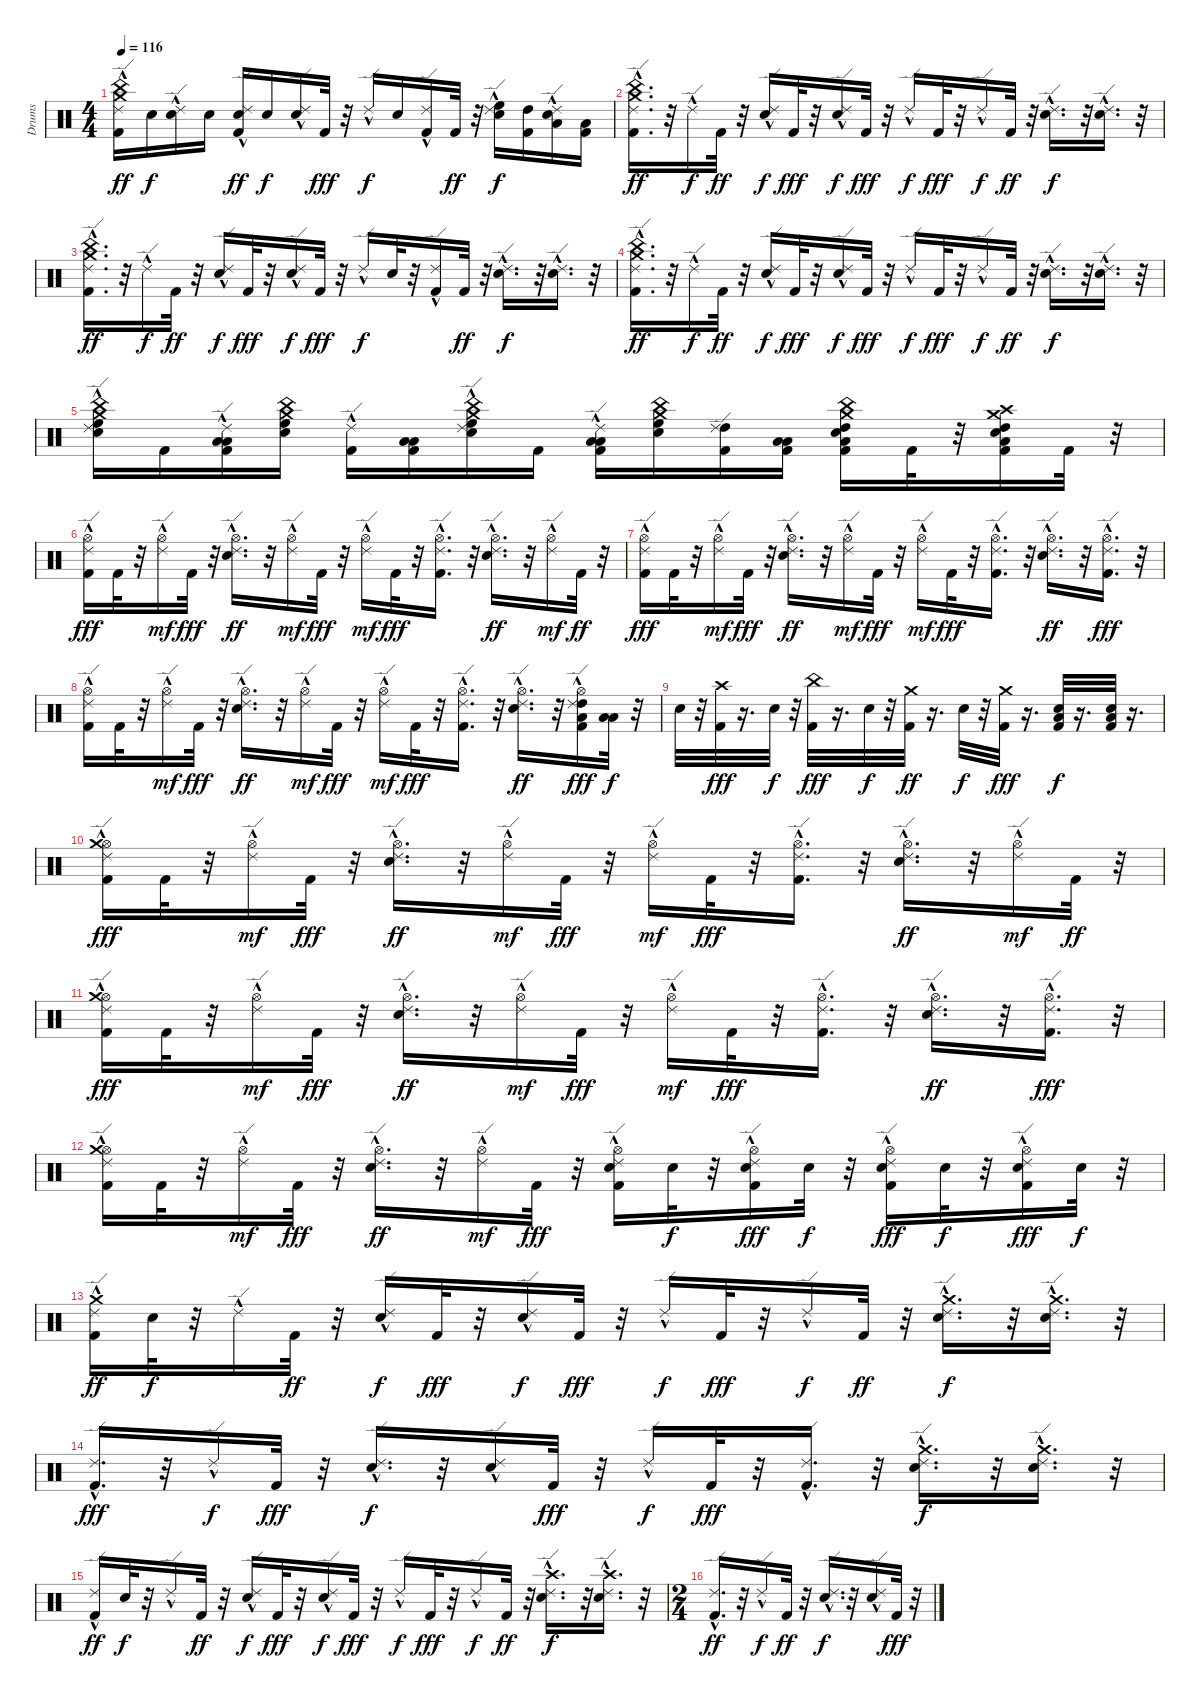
\track ("Drums" "Drums") {instrument percussion}
\staff {score}
\articulation defaults
\ts (4 4)
\tempo 116
\clef neutral
\ks c
("Crash medium (hit)" "China (hit)" "Kick (hit) 2"{hac} "Ride (edge) 2"{hac}).16{dy ff} "Electric Snare (hit)".16{dy f} ("Electric Snare (hit)" "Ride (edge) 2"{hac}).16 "Electric Snare (hit)".16 ("Kick (hit) 2" "Electric Snare (hit)" "Ride (edge) 2"{hac}).16{dy ff} "Electric Snare (hit)".16{dy f} ("Electric Snare (hit)" "Ride (edge) 2"{hac}).16 "Kick (hit) 2".32{dy fff} r.32 "Ride (edge) 2"{hac}.16{dy f} "Electric Snare (hit)".16 ("Kick (hit) 2" "Ride (edge) 2"{hac}).16 "Kick (hit) 2".32{dy ff} r.32 ("High Floor Tom (hit)" "Electric Snare (hit)" "Ride (edge) 2"{hac}).16{dy f} ("High Tom (hit)" "Kick (hit) 2").16 ("Low Tom (hit)" "Electric Snare (hit)" "Ride (edge) 2"{hac}).16 ("Low Floor Tom (hit)" "Kick (hit) 2").16 |
("China (hit)" "Crash medium (hit)" "Kick (hit) 2"{hac} "Ride (edge) 2"{hac}).16{d dy ff} r.32 "Ride (edge) 2"{hac}.16{dy f} "Kick (hit) 2".32{dy ff} r.32 ("Electric Snare (hit)" "Ride (edge) 2"{hac}).16{dy f} "Kick (hit) 2".32{dy fff} r.32 ("Electric Snare (hit)" "Ride (edge) 2"{hac}).16{dy f} "Kick (hit) 2".32{dy fff} r.32 "Ride (edge) 2"{hac}.16{dy f} "Kick (hit) 2".32{dy fff} r.32 "Ride (edge) 2"{hac}.16{dy f} "Kick (hit) 2".32{dy ff} r.32 ("Electric Snare (hit)" "Ride (edge) 2"{hac}).16{d dy f} r.32 ("Electric Snare (hit)" "Ride (edge) 2"{hac}).16{d} r.32 |
("Crash medium (hit)" "China (hit)" "Kick (hit) 2"{hac} "Ride (edge) 2"{hac}).16{d dy ff} r.32 "Ride (edge) 2"{hac}.16{dy f} "Kick (hit) 2".32{dy ff} r.32 ("Electric Snare (hit)" "Ride (edge) 2"{hac}).16{dy f} "Kick (hit) 2".32{dy fff} r.32 ("Electric Snare (hit)" "Ride (edge) 2"{hac}).16{dy f} "Kick (hit) 2".32{dy fff} r.32 "Ride (edge) 2"{hac}.16{dy f} "Electric Snare (hit)".32 r.32 ("Kick (hit) 2" "Ride (edge) 2"{hac}).16 "Kick (hit) 2".32{dy ff} r.32 ("Electric Snare (hit)" "Ride (edge) 2"{hac}).16{d dy f} r.32 ("Electric Snare (hit)" "Ride (edge) 2"{hac}).16{d} r.32 |
("China (hit)" "Crash medium (hit)" "Kick (hit) 2"{hac} "Ride (edge) 2"{hac}).16{d dy ff} r.32 "Ride (edge) 2"{hac}.16{dy f} "Kick (hit) 2".32{dy ff} r.32 ("Electric Snare (hit)" "Ride (edge) 2"{hac}).16{dy f} "Kick (hit) 2".32{dy fff} r.32 ("Electric Snare (hit)" "Ride (edge) 2"{hac}).16{dy f} "Kick (hit) 2".32{dy fff} r.32 "Ride (edge) 2"{hac}.16{dy f} "Kick (hit) 2".32{dy fff} r.32 "Ride (edge) 2"{hac}.16{dy f} "Kick (hit) 2".32{dy ff} r.32 ("Electric Snare (hit)" "Ride (edge) 2"{hac}).16{d dy f} r.32 ("Electric Snare (hit)" "Ride (edge) 2"{hac}).16{d} r.32 |
("High Floor Tom (hit)" "Electric Snare (hit)" "China (hit)" "Crash medium (hit)" "Ride (edge) 2"{hac}).16 "Kick (hit) 2".16 ("Low Floor Tom (hit)" "Low Tom (hit)" "Kick (hit) 2" "Ride (edge) 2"{hac}).16 ("High Floor Tom (hit)" "Crash medium (hit)" "China (hit)" "Electric Snare (hit)").16 ("Kick (hit) 2" "Ride (edge) 2"{hac}).16 ("Low Floor Tom (hit)" "Low Tom (hit)" "Kick (hit) 2").16 ("High Floor Tom (hit)" "Crash medium (hit)" "China (hit)" "Electric Snare (hit)" "Ride (edge) 2"{hac}).16 "Kick (hit) 2".16 ("Low Floor Tom (hit)" "Low Tom (hit)" "Kick (hit) 2" "Ride (edge) 2"{hac}).16 ("High Floor Tom (hit)" "Crash medium (hit)" "China (hit)" "Electric Snare (hit)").16 ("High Tom (hit)" "Kick (hit) 2" "Ride (edge) 2").16 ("Low Floor Tom (hit)" "Low Tom (hit)" "Kick (hit) 2").16 ("Low Floor Tom (hit)" "High Tom (hit)" "Crash medium (hit)" "China (hit)" "Kick (hit) 2" "Electric Snare (hit)").16 "Kick (hit) 2".32 r.32 ("High Tom (hit)" "Low Floor Tom (hit)" "Crash high (hit)" "Crash medium (hit)" "Kick (hit) 2" "Electric Snare (hit)").16 "Kick (hit) 2".32 r.32 |
("Hi-Hat (open)" "Ride (edge) 2"{hac} "Kick (hit) 2").16{dy fff} "Kick (hit) 2".32 r.32 ("Hi-Hat (open)" "Ride (edge) 2"{hac}).16{dy mf} "Kick (hit) 2".32{dy fff} r.32 ("Hi-Hat (open)" "Ride (edge) 2"{hac} "Electric Snare (hit)").16{d dy ff} r.32 ("Hi-Hat (open)" "Ride (edge) 2"{hac}).16{dy mf} "Kick (hit) 2".32{dy fff} r.32 ("Hi-Hat (open)" "Ride (edge) 2"{hac}).16{dy mf} "Kick (hit) 2".32{dy fff} r.32 ("Hi-Hat (open)" "Ride (edge) 2"{hac} "Kick (hit) 2").16{d} r.32 ("Hi-Hat (open)" "Ride (edge) 2"{hac} "Electric Snare (hit)").16{d dy ff} r.32 ("Hi-Hat (open)" "Ride (edge) 2"{hac}).16{dy mf} "Kick (hit) 2".32{dy ff} r.32 |
("Hi-Hat (open)" "Ride (edge) 2"{hac} "Kick (hit) 2").16{dy fff} "Kick (hit) 2".32 r.32 ("Hi-Hat (open)" "Ride (edge) 2"{hac}).16{dy mf} "Kick (hit) 2".32{dy fff} r.32 ("Hi-Hat (open)" "Ride (edge) 2"{hac} "Electric Snare (hit)").16{d dy ff} r.32 ("Hi-Hat (open)" "Ride (edge) 2"{hac}).16{dy mf} "Kick (hit) 2".32{dy fff} r.32 ("Hi-Hat (open)" "Ride (edge) 2"{hac}).16{dy mf} "Kick (hit) 2".32{dy fff} r.32 ("Hi-Hat (open)" "Ride (edge) 2"{hac} "Kick (hit) 2").16{d} r.32 ("Hi-Hat (open)" "Ride (edge) 2"{hac} "Electric Snare (hit)").16{d dy ff} r.32 ("Hi-Hat (open)" "Kick (hit) 2" "Ride (edge) 2"{hac}).16{d dy fff} r.32 |
("Hi-Hat (open)" "Ride (edge) 2"{hac} "Kick (hit) 2").16 "Kick (hit) 2".32 r.32 ("Hi-Hat (open)" "Ride (edge) 2"{hac}).16{dy mf} "Kick (hit) 2".32{dy fff} r.32 ("Hi-Hat (open)" "Ride (edge) 2"{hac} "Electric Snare (hit)").16{d dy ff} r.32 ("Hi-Hat (open)" "Ride (edge) 2"{hac}).16{dy mf} "Kick (hit) 2".32{dy fff} r.32 ("Hi-Hat (open)" "Ride (edge) 2"{hac}).16{dy mf} "Kick (hit) 2".32{dy fff} r.32 ("Hi-Hat (open)" "Ride (edge) 2"{hac} "Kick (hit) 2").16{d} r.32 ("Hi-Hat (open)" "Ride (edge) 2"{hac} "Electric Snare (hit)").16{d dy ff} r.32 ("Hi-Hat (open)" "Low Tom (hit)" "High Tom (hit)" "Kick (hit) 2" "Ride (edge) 2"{hac}).16{dy fff} ("Low Floor Tom (hit)" "Low Tom (hit)").32{dy f} r.32 |
"Electric Snare (hit)".32 r.32 ("Crash high (hit)" "Kick (hit) 2").32{dy fff} r.16{d} "Electric Snare (hit)".32{dy f} r.32 ("China (hit)" "Kick (hit) 2").32{dy fff} r.16{d} "Electric Snare (hit)".32{dy f} r.32 ("Crash medium (hit)" "Kick (hit) 2").32{dy ff} r.16{d} "Electric Snare (hit)".32{dy f} r.32 ("Crash medium (hit)" "Kick (hit) 2").32{dy fff} r.16{d} ("Low Tom (hit)" "Kick (hit) 2" "Electric Snare (hit)").32{dy f} r.16{d} ("Low Tom (hit)" "Kick (hit) 2" "Electric Snare (hit)").32 r.16{d} |
("Hi-Hat (open)" "Ride (edge) 2"{hac} "Kick (hit) 2" "Crash medium (hit)").16{dy fff} "Kick (hit) 2".32 r.32 ("Hi-Hat (open)" "Ride (edge) 2"{hac}).16{dy mf} "Kick (hit) 2".32{dy fff} r.32 ("Hi-Hat (open)" "Ride (edge) 2"{hac} "Electric Snare (hit)").16{d dy ff} r.32 ("Hi-Hat (open)" "Ride (edge) 2"{hac}).16{dy mf} "Kick (hit) 2".32{dy fff} r.32 ("Hi-Hat (open)" "Ride (edge) 2"{hac}).16{dy mf} "Kick (hit) 2".32{dy fff} r.32 ("Hi-Hat (open)" "Ride (edge) 2"{hac} "Kick (hit) 2").16{d} r.32 ("Hi-Hat (open)" "Ride (edge) 2"{hac} "Electric Snare (hit)").16{d dy ff} r.32 ("Hi-Hat (open)" "Ride (edge) 2"{hac}).16{dy mf} "Kick (hit) 2".32{dy ff} r.32 |
("Hi-Hat (open)" "Crash medium (hit)" "Ride (edge) 2"{hac} "Kick (hit) 2").16{dy fff} "Kick (hit) 2".32 r.32 ("Hi-Hat (open)" "Ride (edge) 2"{hac}).16{dy mf} "Kick (hit) 2".32{dy fff} r.32 ("Hi-Hat (open)" "Ride (edge) 2"{hac} "Electric Snare (hit)").16{d dy ff} r.32 ("Hi-Hat (open)" "Ride (edge) 2"{hac}).16{dy mf} "Kick (hit) 2".32{dy fff} r.32 ("Hi-Hat (open)" "Ride (edge) 2"{hac}).16{dy mf} "Kick (hit) 2".32{dy fff} r.32 ("Hi-Hat (open)" "Ride (edge) 2"{hac} "Kick (hit) 2").16{d} r.32 ("Hi-Hat (open)" "Ride (edge) 2"{hac} "Electric Snare (hit)").16{d dy ff} r.32 ("Hi-Hat (open)" "Kick (hit) 2" "Ride (edge) 2"{hac}).16{d dy fff} r.32 |
("Hi-Hat (open)" "Crash medium (hit)" "Ride (edge) 2"{hac} "Kick (hit) 2").16 "Kick (hit) 2".32 r.32 ("Hi-Hat (open)" "Ride (edge) 2"{hac}).16{dy mf} "Kick (hit) 2".32{dy fff} r.32 ("Hi-Hat (open)" "Ride (edge) 2"{hac} "Electric Snare (hit)").16{d dy ff} r.32 ("Hi-Hat (open)" "Ride (edge) 2"{hac}).16{dy mf} "Kick (hit) 2".32{dy fff} r.32 ("Hi-Hat (open)" "Kick (hit) 2" "Electric Snare (hit)" "Ride (edge) 2"{hac}).16 "Electric Snare (hit)".32{dy f} r.32 ("Hi-Hat (open)" "Electric Snare (hit)" "Ride (edge) 2"{hac} "Kick (hit) 2").16{dy fff} "Electric Snare (hit)".32{dy f} r.32 ("Hi-Hat (open)" "Kick (hit) 2" "Electric Snare (hit)" "Ride (edge) 2"{hac}).16{dy fff} "Electric Snare (hit)".32{dy f} r.32 ("Hi-Hat (open)" "Electric Snare (hit)" "Kick (hit) 2" "Ride (edge) 2"{hac}).16{dy fff} "Electric Snare (hit)".32{dy f} r.32 |
("Crash medium (hit)" "Kick (hit) 2"{hac} "Ride (edge) 2"{hac}).16{dy ff} "Electric Snare (hit)".32{dy f} r.32 "Ride (edge) 2"{hac}.16 "Kick (hit) 2".32{dy ff} r.32 ("Electric Snare (hit)" "Ride (edge) 2"{hac}).16{dy f} "Kick (hit) 2".32{dy fff} r.32 ("Electric Snare (hit)" "Ride (edge) 2"{hac}).16{dy f} "Kick (hit) 2".32{dy fff} r.32 "Ride (edge) 2"{hac}.16{dy f} "Kick (hit) 2".32{dy fff} r.32 "Ride (edge) 2"{hac}.16{dy f} "Kick (hit) 2".32{dy ff} r.32 ("Crash medium (hit)" "Electric Snare (hit)" "Ride (edge) 2"{hac}).16{d dy f} r.32 ("Crash medium (hit)" "Electric Snare (hit)" "Ride (edge) 2"{hac}).16{d} r.32 |
("Kick (hit) 2" "Ride (edge) 2"{hac}).16{d dy fff} r.32 "Ride (edge) 2"{hac}.16{dy f} "Kick (hit) 2".32{dy fff} r.32 ("Electric Snare (hit)" "Ride (edge) 2"{hac}).16{d dy f} r.32 ("Electric Snare (hit)" "Ride (edge) 2"{hac}).16 "Kick (hit) 2".32{dy fff} r.32 "Ride (edge) 2"{hac}.16{dy f} "Kick (hit) 2".32{dy fff} r.32 ("Kick (hit) 2" "Ride (edge) 2"{hac}).16{d} r.32 ("Crash medium (hit)" "Electric Snare (hit)" "Ride (edge) 2"{hac}).16{d dy f} r.32 ("Crash medium (hit)" "Electric Snare (hit)" "Ride (edge) 2"{hac}).16{d} r.32 |
("Kick (hit) 2"{hac} "Ride (edge) 2"{hac}).16{dy ff} "Electric Snare (hit)".32{dy f} r.32 "Ride (edge) 2"{hac}.16 "Kick (hit) 2".32{dy ff} r.32 ("Electric Snare (hit)" "Ride (edge) 2"{hac}).16{dy f} "Kick (hit) 2".32{dy fff} r.32 ("Electric Snare (hit)" "Ride (edge) 2"{hac}).16{dy f} "Kick (hit) 2".32{dy fff} r.32 "Ride (edge) 2"{hac}.16{dy f} "Kick (hit) 2".32{dy fff} r.32 "Ride (edge) 2"{hac}.16{dy f} "Kick (hit) 2".32{dy ff} r.32 ("Crash high (hit)" "Electric Snare (hit)" "Ride (edge) 2"{hac}).16{d dy f} r.32 ("Crash high (hit)" "Electric Snare (hit)" "Ride (edge) 2"{hac}).16{d} r.32 |
\ts (2 4)
("Kick (hit) 2"{hac} "Ride (edge) 2"{hac}).16{d dy ff} r.32 "Ride (edge) 2"{hac}.16{dy f} "Kick (hit) 2".32{dy ff} r.32 ("Electric Snare (hit)" "Ride (edge) 2"{hac}).16{d dy f} r.32 ("Electric Snare (hit)" "Ride (edge) 2"{hac}).16 "Kick (hit) 2".32{dy fff} r.32
